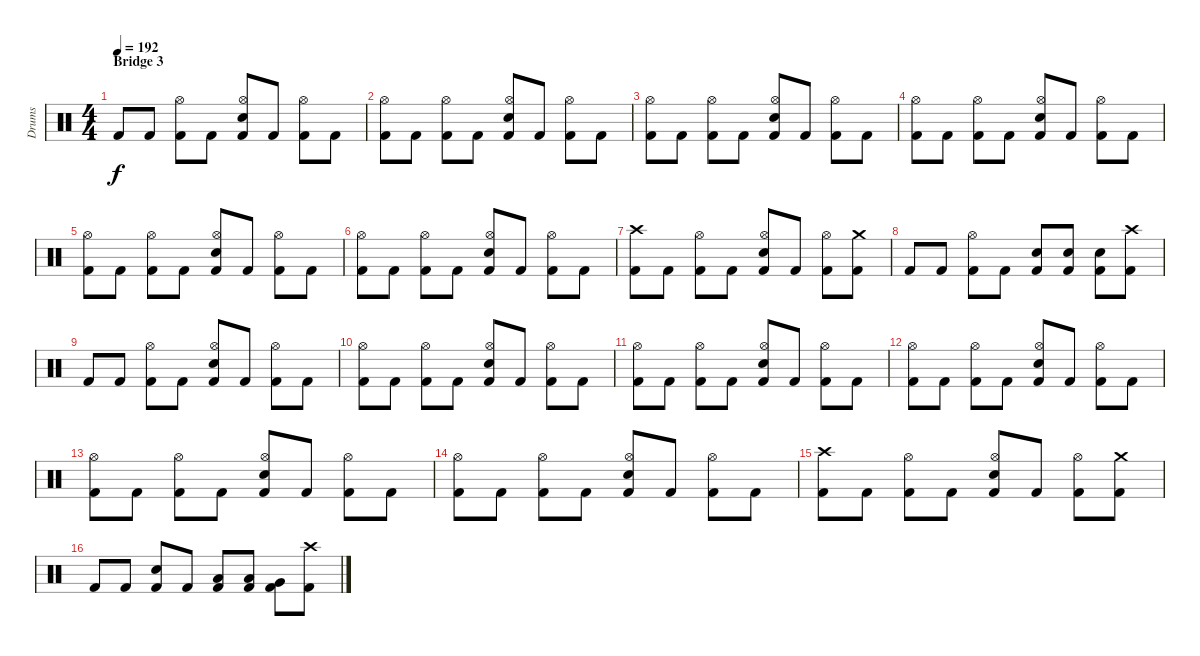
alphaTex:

\track ("Drums" "Drums") {instrument percussion}
\staff {score}
\articulation defaults
\ts (4 4)
\section ("" "Bridge 3")
\tempo 192
\clef neutral
\ks c "Kick (hit) 2".8{dy f} "Kick (hit) 2".8
("Hi-Hat (open)" "Kick (hit) 2").8 "Kick (hit) 2".8 ("Hi-Hat (open)" "Snare (hit) 2" "Kick (hit) 2").8 "Kick (hit) 2".8 ("Hi-Hat (open)" "Kick (hit) 2").8 "Kick (hit) 2".8 |
("Hi-Hat (open)" "Kick (hit) 2").8 "Kick (hit) 2".8 ("Hi-Hat (open)" "Kick (hit) 2").8 "Kick (hit) 2".8 ("Hi-Hat (open)" "Snare (hit) 2" "Kick (hit) 2").8 "Kick (hit) 2".8 ("Hi-Hat (open)" "Kick (hit) 2").8 "Kick (hit) 2".8 |
("Hi-Hat (open)" "Kick (hit) 2").8 "Kick (hit) 2".8 ("Hi-Hat (open)" "Kick (hit) 2").8 "Kick (hit) 2".8 ("Hi-Hat (open)" "Snare (hit) 2" "Kick (hit) 2").8 "Kick (hit) 2".8 ("Hi-Hat (open)" "Kick (hit) 2").8 "Kick (hit) 2".8 |
("Hi-Hat (open)" "Kick (hit) 2").8 "Kick (hit) 2".8 ("Hi-Hat (open)" "Kick (hit) 2").8 "Kick (hit) 2".8 ("Hi-Hat (open)" "Snare (hit) 2" "Kick (hit) 2").8 "Kick (hit) 2".8 ("Hi-Hat (open)" "Kick (hit) 2").8 "Kick (hit) 2".8 |
("Hi-Hat (open)" "Kick (hit) 2").8 "Kick (hit) 2".8 ("Hi-Hat (open)" "Kick (hit) 2").8 "Kick (hit) 2".8 ("Hi-Hat (open)" "Snare (hit) 2" "Kick (hit) 2").8 "Kick (hit) 2".8 ("Hi-Hat (open)" "Kick (hit) 2").8 "Kick (hit) 2".8 |
("Hi-Hat (open)" "Kick (hit) 2").8 "Kick (hit) 2".8 ("Hi-Hat (open)" "Kick (hit) 2").8 "Kick (hit) 2".8 ("Hi-Hat (open)" "Snare (hit) 2" "Kick (hit) 2").8 "Kick (hit) 2".8 ("Hi-Hat (open)" "Kick (hit) 2").8 "Kick (hit) 2".8 |
("Crash high (hit)" "Kick (hit) 2").8 "Kick (hit) 2".8 ("Hi-Hat (open)" "Kick (hit) 2").8 "Kick (hit) 2".8 ("Hi-Hat (open)" "Snare (hit) 2" "Kick (hit) 2").8 "Kick (hit) 2".8 ("Hi-Hat (open)" "Kick (hit) 2").8 ("Crash medium (hit)" "Kick (hit) 2").8 |
"Kick (hit) 2".8 "Kick (hit) 2".8 ("Hi-Hat (open)" "Kick (hit) 2").8 "Kick (hit) 2".8 ("Snare (hit) 2" "Kick (hit) 2").8 ("Snare (hit) 2" "Kick (hit) 2").8 ("Snare (hit) 2" "Kick (hit) 2").8 ("Crash high (hit)" "Kick (hit) 2").8 |
"Kick (hit) 2".8 "Kick (hit) 2".8 ("Hi-Hat (open)" "Kick (hit) 2").8 "Kick (hit) 2".8 ("Hi-Hat (open)" "Snare (hit) 2" "Kick (hit) 2").8 "Kick (hit) 2".8 ("Hi-Hat (open)" "Kick (hit) 2").8 "Kick (hit) 2".8 |
("Hi-Hat (open)" "Kick (hit) 2").8 "Kick (hit) 2".8 ("Hi-Hat (open)" "Kick (hit) 2").8 "Kick (hit) 2".8 ("Hi-Hat (open)" "Snare (hit) 2" "Kick (hit) 2").8 "Kick (hit) 2".8 ("Hi-Hat (open)" "Kick (hit) 2").8 "Kick (hit) 2".8 |
("Hi-Hat (open)" "Kick (hit) 2").8 "Kick (hit) 2".8 ("Hi-Hat (open)" "Kick (hit) 2").8 "Kick (hit) 2".8 ("Hi-Hat (open)" "Snare (hit) 2" "Kick (hit) 2").8 "Kick (hit) 2".8 ("Hi-Hat (open)" "Kick (hit) 2").8 "Kick (hit) 2".8 |
("Hi-Hat (open)" "Kick (hit) 2").8 "Kick (hit) 2".8 ("Hi-Hat (open)" "Kick (hit) 2").8 "Kick (hit) 2".8 ("Hi-Hat (open)" "Snare (hit) 2" "Kick (hit) 2").8 "Kick (hit) 2".8 ("Hi-Hat (open)" "Kick (hit) 2").8 "Kick (hit) 2".8 |
("Hi-Hat (open)" "Kick (hit) 2").8 "Kick (hit) 2".8 ("Hi-Hat (open)" "Kick (hit) 2").8 "Kick (hit) 2".8 ("Hi-Hat (open)" "Snare (hit) 2" "Kick (hit) 2").8 "Kick (hit) 2".8 ("Hi-Hat (open)" "Kick (hit) 2").8 "Kick (hit) 2".8 |
("Hi-Hat (open)" "Kick (hit) 2").8 "Kick (hit) 2".8 ("Hi-Hat (open)" "Kick (hit) 2").8 "Kick (hit) 2".8 ("Hi-Hat (open)" "Snare (hit) 2" "Kick (hit) 2").8 "Kick (hit) 2".8 ("Hi-Hat (open)" "Kick (hit) 2").8 "Kick (hit) 2".8 |
("Crash high (hit)" "Kick (hit) 2").8 "Kick (hit) 2".8 ("Hi-Hat (open)" "Kick (hit) 2").8 "Kick (hit) 2".8 ("Hi-Hat (open)" "Snare (hit) 2" "Kick (hit) 2").8 "Kick (hit) 2".8 ("Hi-Hat (open)" "Kick (hit) 2").8 ("Crash medium (hit)" "Kick (hit) 2").8 |
"Kick (hit) 2".8 "Kick (hit) 2".8 ("Snare (hit) 2" "Kick (hit) 2").8 "Kick (hit) 2".8 ("Low Tom (hit)" "Kick (hit) 2").8 ("Low Tom (hit)" "Kick (hit) 2").8 ("Very Low Tom (hit)" "Kick (hit) 2").8 ("Crash high (hit)" "Kick (hit) 2").8
